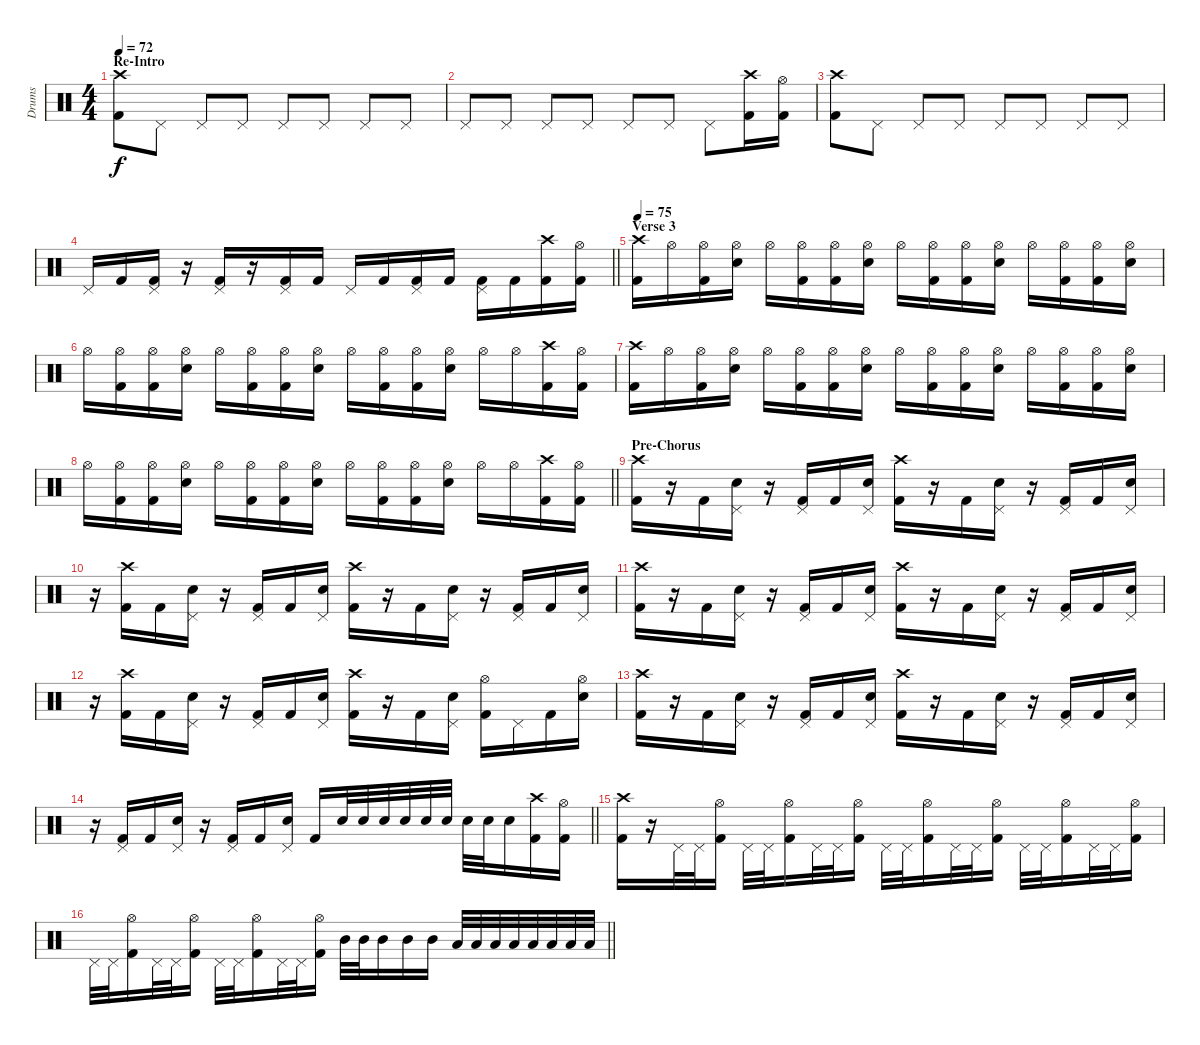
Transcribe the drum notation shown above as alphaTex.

\track ("Drums" "Drums") {instrument percussion}
\staff {score}
\articulation defaults
\ts (4 4)
\section ("" "Re-Intro")
\tempo 72
\clef neutral
\ks c
("Crash high (hit)" "Kick (hit) 2").8{dy f} "Pedal Hi-Hat (hit)".8 "Pedal Hi-Hat (hit)".8 "Pedal Hi-Hat (hit)".8 "Pedal Hi-Hat (hit)".8 "Pedal Hi-Hat (hit)".8 "Pedal Hi-Hat (hit)".8 "Pedal Hi-Hat (hit)".8 |
"Pedal Hi-Hat (hit)".8 "Pedal Hi-Hat (hit)".8 "Pedal Hi-Hat (hit)".8 "Pedal Hi-Hat (hit)".8 "Pedal Hi-Hat (hit)".8 "Pedal Hi-Hat (hit)".8 "Pedal Hi-Hat (hit)".8 ("Crash high (hit)" "Kick (hit) 2").16 ("Hi-Hat (open)" "Kick (hit) 2").16 |
("Crash high (hit)" "Kick (hit) 2").8 "Pedal Hi-Hat (hit)".8 "Pedal Hi-Hat (hit)".8 "Pedal Hi-Hat (hit)".8 "Pedal Hi-Hat (hit)".8 "Pedal Hi-Hat (hit)".8 "Pedal Hi-Hat (hit)".8 "Pedal Hi-Hat (hit)".8 |
\barLineRight lightlight "Pedal Hi-Hat (hit)".16 "Kick (hit) 2".16
("Pedal Hi-Hat (hit)" "Kick (hit) 2").16 r.16 ("Pedal Hi-Hat (hit)" "Kick (hit) 2").16 r.16 ("Pedal Hi-Hat (hit)" "Kick (hit) 2").16 "Kick (hit) 2".16 "Pedal Hi-Hat (hit)".16 "Kick (hit) 2".16 ("Pedal Hi-Hat (hit)" "Kick (hit) 2").16 "Kick (hit) 2".16 ("Pedal Hi-Hat (hit)" "Kick (hit) 2").16 "Kick (hit) 2".16 ("Crash high (hit)" "Kick (hit) 2").16 ("Hi-Hat (open)" "Kick (hit) 2").16 |
\section ("" "Verse 3")
\tempo 75
("Crash high (hit)" "Kick (hit) 2").16 "Hi-Hat (open)".16 ("Hi-Hat (open)" "Kick (hit) 2").16 ("Hi-Hat (open)" "Snare (hit) 2").16 "Hi-Hat (open)".16 ("Hi-Hat (open)" "Kick (hit) 2").16 ("Hi-Hat (open)" "Kick (hit) 2").16 ("Hi-Hat (open)" "Snare (hit) 2").16 "Hi-Hat (open)".16 ("Hi-Hat (open)" "Kick (hit) 2").16 ("Hi-Hat (open)" "Kick (hit) 2").16 ("Hi-Hat (open)" "Snare (hit) 2").16 "Hi-Hat (open)".16 ("Hi-Hat (open)" "Kick (hit) 2").16 ("Hi-Hat (open)" "Kick (hit) 2").16 ("Hi-Hat (open)" "Snare (hit) 2").16 |
"Hi-Hat (open)".16 ("Hi-Hat (open)" "Kick (hit) 2").16 ("Hi-Hat (open)" "Kick (hit) 2").16 ("Hi-Hat (open)" "Snare (hit) 2").16 "Hi-Hat (open)".16 ("Hi-Hat (open)" "Kick (hit) 2").16 ("Hi-Hat (open)" "Kick (hit) 2").16 ("Hi-Hat (open)" "Snare (hit) 2").16 "Hi-Hat (open)".16 ("Hi-Hat (open)" "Kick (hit) 2").16 ("Hi-Hat (open)" "Kick (hit) 2").16 ("Hi-Hat (open)" "Snare (hit) 2").16 "Hi-Hat (open)".16 "Hi-Hat (open)".16 ("Crash high (hit)" "Kick (hit) 2").16 ("Hi-Hat (open)" "Kick (hit) 2").16 |
("Crash high (hit)" "Kick (hit) 2").16 "Hi-Hat (open)".16 ("Hi-Hat (open)" "Kick (hit) 2").16 ("Hi-Hat (open)" "Snare (hit) 2").16 "Hi-Hat (open)".16 ("Hi-Hat (open)" "Kick (hit) 2").16 ("Hi-Hat (open)" "Kick (hit) 2").16 ("Hi-Hat (open)" "Snare (hit) 2").16 "Hi-Hat (open)".16 ("Hi-Hat (open)" "Kick (hit) 2").16 ("Hi-Hat (open)" "Kick (hit) 2").16 ("Hi-Hat (open)" "Snare (hit) 2").16 "Hi-Hat (open)".16 ("Hi-Hat (open)" "Kick (hit) 2").16 ("Hi-Hat (open)" "Kick (hit) 2").16 ("Hi-Hat (open)" "Snare (hit) 2").16 |
\barLineRight lightlight "Hi-Hat (open)".16
("Hi-Hat (open)" "Kick (hit) 2").16 ("Hi-Hat (open)" "Kick (hit) 2").16 ("Hi-Hat (open)" "Snare (hit) 2").16 "Hi-Hat (open)".16 ("Hi-Hat (open)" "Kick (hit) 2").16 ("Hi-Hat (open)" "Kick (hit) 2").16 ("Hi-Hat (open)" "Snare (hit) 2").16 "Hi-Hat (open)".16 ("Hi-Hat (open)" "Kick (hit) 2").16 ("Hi-Hat (open)" "Kick (hit) 2").16 ("Hi-Hat (open)" "Snare (hit) 2").16 "Hi-Hat (open)".16 "Hi-Hat (open)".16 ("Crash high (hit)" "Kick (hit) 2").16 ("Hi-Hat (open)" "Kick (hit) 2").16 |
\section ("" "Pre-Chorus")
("Crash high (hit)" "Kick (hit) 2").16 r.16 "Kick (hit) 2".16 ("Pedal Hi-Hat (hit)" "Snare (hit) 2").16 r.16 ("Pedal Hi-Hat (hit)" "Kick (hit) 2").16 "Kick (hit) 2".16 ("Pedal Hi-Hat (hit)" "Snare (hit) 2").16 ("Crash high (hit)" "Kick (hit) 2").16 r.16 "Kick (hit) 2".16 ("Pedal Hi-Hat (hit)" "Snare (hit) 2").16 r.16 ("Pedal Hi-Hat (hit)" "Kick (hit) 2").16 "Kick (hit) 2".16 ("Pedal Hi-Hat (hit)" "Snare (hit) 2").16 |
r.16 ("Crash high (hit)" "Kick (hit) 2").16 "Kick (hit) 2".16 ("Pedal Hi-Hat (hit)" "Snare (hit) 2").16 r.16 ("Pedal Hi-Hat (hit)" "Kick (hit) 2").16 "Kick (hit) 2".16 ("Pedal Hi-Hat (hit)" "Snare (hit) 2").16 ("Crash high (hit)" "Kick (hit) 2").16 r.16 "Kick (hit) 2".16 ("Pedal Hi-Hat (hit)" "Snare (hit) 2").16 r.16 ("Pedal Hi-Hat (hit)" "Kick (hit) 2").16 "Kick (hit) 2".16 ("Pedal Hi-Hat (hit)" "Snare (hit) 2").16 |
("Crash high (hit)" "Kick (hit) 2").16 r.16 "Kick (hit) 2".16 ("Pedal Hi-Hat (hit)" "Snare (hit) 2").16 r.16 ("Pedal Hi-Hat (hit)" "Kick (hit) 2").16 "Kick (hit) 2".16 ("Pedal Hi-Hat (hit)" "Snare (hit) 2").16 ("Crash high (hit)" "Kick (hit) 2").16 r.16 "Kick (hit) 2".16 ("Pedal Hi-Hat (hit)" "Snare (hit) 2").16 r.16 ("Pedal Hi-Hat (hit)" "Kick (hit) 2").16 "Kick (hit) 2".16 ("Pedal Hi-Hat (hit)" "Snare (hit) 2").16 |
r.16 ("Crash high (hit)" "Kick (hit) 2").16 "Kick (hit) 2".16 ("Pedal Hi-Hat (hit)" "Snare (hit) 2").16 r.16 ("Pedal Hi-Hat (hit)" "Kick (hit) 2").16 "Kick (hit) 2".16 ("Pedal Hi-Hat (hit)" "Snare (hit) 2").16 ("Crash high (hit)" "Kick (hit) 2").16 r.16 "Kick (hit) 2".16 ("Pedal Hi-Hat (hit)" "Snare (hit) 2").16 ("Hi-Hat (open)" "Kick (hit) 2").16 "Pedal Hi-Hat (hit)".16 "Kick (hit) 2".16 ("Hi-Hat (open)" "Snare (hit) 2").16 |
("Crash high (hit)" "Kick (hit) 2").16 r.16 "Kick (hit) 2".16 ("Pedal Hi-Hat (hit)" "Snare (hit) 2").16 r.16 ("Pedal Hi-Hat (hit)" "Kick (hit) 2").16 "Kick (hit) 2".16 ("Pedal Hi-Hat (hit)" "Snare (hit) 2").16 ("Crash high (hit)" "Kick (hit) 2").16 r.16 "Kick (hit) 2".16 ("Pedal Hi-Hat (hit)" "Snare (hit) 2").16 r.16 ("Pedal Hi-Hat (hit)" "Kick (hit) 2").16 "Kick (hit) 2".16 ("Pedal Hi-Hat (hit)" "Snare (hit) 2").16 |
\barLineRight lightlight
r.16 ("Pedal Hi-Hat (hit)" "Kick (hit) 2").16 "Kick (hit) 2".16 ("Pedal Hi-Hat (hit)" "Snare (hit) 2").16 r.16 ("Pedal Hi-Hat (hit)" "Kick (hit) 2").16 "Kick (hit) 2".16 ("Pedal Hi-Hat (hit)" "Snare (hit) 2").16 "Kick (hit) 2".16 "Snare (hit) 2".32 "Snare (hit) 2".32 "Snare (hit) 2".32 "Snare (hit) 2".32 "Snare (hit) 2".32 "Snare (hit) 2".32 "Snare (hit) 2".32 "Snare (hit) 2".32 "Snare (hit) 2".16 ("Crash high (hit)" "Kick (hit) 2").16 ("Hi-Hat (open)" "Kick (hit) 2").16 |
("Crash high (hit)" "Kick (hit) 2").16 r.16 "Pedal Hi-Hat (hit)".32 "Pedal Hi-Hat (hit)".32 ("Hi-Hat (open)" "Kick (hit) 2").16 "Pedal Hi-Hat (hit)".32 "Pedal Hi-Hat (hit)".32 ("Hi-Hat (open)" "Kick (hit) 2").16 "Pedal Hi-Hat (hit)".32 "Pedal Hi-Hat (hit)".32 ("Hi-Hat (open)" "Kick (hit) 2").16 "Pedal Hi-Hat (hit)".32 "Pedal Hi-Hat (hit)".32 ("Hi-Hat (open)" "Kick (hit) 2").16 "Pedal Hi-Hat (hit)".32 "Pedal Hi-Hat (hit)".32 ("Hi-Hat (open)" "Kick (hit) 2").16 "Pedal Hi-Hat (hit)".32 "Pedal Hi-Hat (hit)".32 ("Hi-Hat (open)" "Kick (hit) 2").16 "Pedal Hi-Hat (hit)".32 "Pedal Hi-Hat (hit)".32 ("Hi-Hat (open)" "Kick (hit) 2").16 |
\barLineRight lightlight "Pedal Hi-Hat (hit)".32 "Pedal Hi-Hat (hit)".32
("Hi-Hat (open)" "Kick (hit) 2").16 "Pedal Hi-Hat (hit)".32 "Pedal Hi-Hat (hit)".32 ("Hi-Hat (open)" "Kick (hit) 2").16 "Pedal Hi-Hat (hit)".32 "Pedal Hi-Hat (hit)".32 ("Hi-Hat (open)" "Kick (hit) 2").16 "Pedal Hi-Hat (hit)".32 "Pedal Hi-Hat (hit)".32 ("Hi-Hat (open)" "Kick (hit) 2").16 "Mid Tom (hit)".32 "Mid Tom (hit)".32 "Mid Tom (hit)".16 "Mid Tom (hit)".16 "Mid Tom (hit)".16 "Low Tom (hit)".32 "Low Tom (hit)".32 "Low Tom (hit)".32 "Low Tom (hit)".32 "Low Tom (hit)".32 "Low Tom (hit)".32 "Low Tom (hit)".32 "Low Tom (hit)".32
